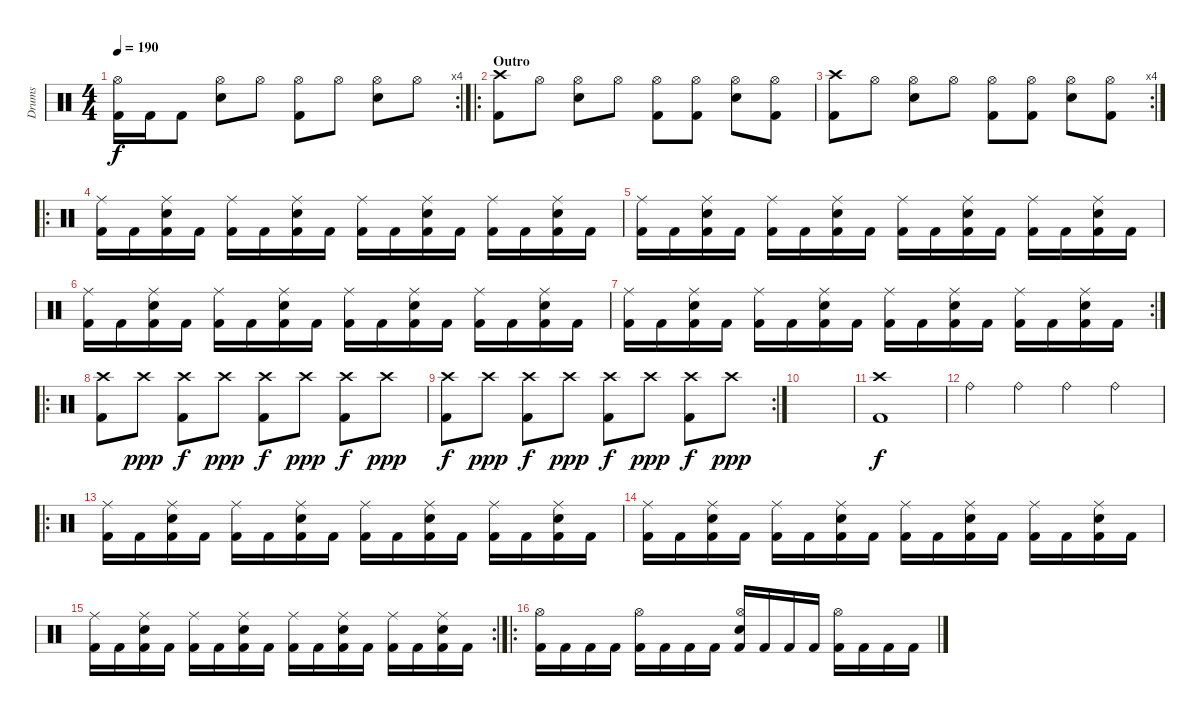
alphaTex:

\track ("Drums" "Drums") {instrument percussion}
\staff {score}
\articulation defaults
\rc 4
\ts (4 4)
\tempo 190
\clef neutral
\ks c
("Kick (hit) 2" "Hi-Hat (open)").16{dy f} "Kick (hit) 2".16 "Kick (hit) 2".8 ("Hi-Hat (open)" "Electric Snare (hit)").8 "Hi-Hat (open)".8 ("Hi-Hat (open)" "Kick (hit) 2").8 "Hi-Hat (open)".8 ("Hi-Hat (open)" "Electric Snare (hit)").8 "Hi-Hat (open)".8 |
\ro
\section ("" "Outro")
("Crash high (hit)" "Kick (hit) 2").8 "Hi-Hat (open)".8 ("Hi-Hat (open)" "Electric Snare (hit)").8 "Hi-Hat (open)".8 ("Hi-Hat (open)" "Kick (hit) 2").8 ("Hi-Hat (open)" "Kick (hit) 2").8 ("Hi-Hat (open)" "Electric Snare (hit)").8 ("Hi-Hat (open)" "Kick (hit) 2").8 |
\rc 4
("Crash high (hit)" "Kick (hit) 2").8 "Hi-Hat (open)".8 ("Hi-Hat (open)" "Electric Snare (hit)").8 "Hi-Hat (open)".8 ("Hi-Hat (open)" "Kick (hit) 2").8 ("Hi-Hat (open)" "Kick (hit) 2").8 ("Hi-Hat (open)" "Electric Snare (hit)").8 ("Hi-Hat (open)" "Kick (hit) 2").8 |
\ro
("Kick (hit) 2" "Ride (middle)").16 "Kick (hit) 2".16 ("Kick (hit) 2" "Ride (middle)" "Electric Snare (hit)").16 "Kick (hit) 2".16 ("Kick (hit) 2" "Ride (middle)").16 "Kick (hit) 2".16 ("Kick (hit) 2" "Ride (middle)" "Electric Snare (hit)").16 "Kick (hit) 2".16 ("Kick (hit) 2" "Ride (middle)").16 "Kick (hit) 2".16 ("Kick (hit) 2" "Ride (middle)" "Electric Snare (hit)").16 "Kick (hit) 2".16 ("Kick (hit) 2" "Ride (middle)").16 "Kick (hit) 2".16 ("Kick (hit) 2" "Ride (middle)" "Electric Snare (hit)").16 "Kick (hit) 2".16 |
("Kick (hit) 2" "Ride (middle)").16 "Kick (hit) 2".16 ("Kick (hit) 2" "Ride (middle)" "Electric Snare (hit)").16 "Kick (hit) 2".16 ("Kick (hit) 2" "Ride (middle)").16 "Kick (hit) 2".16 ("Kick (hit) 2" "Ride (middle)" "Electric Snare (hit)").16 "Kick (hit) 2".16 ("Kick (hit) 2" "Ride (middle)").16 "Kick (hit) 2".16 ("Kick (hit) 2" "Ride (middle)" "Electric Snare (hit)").16 "Kick (hit) 2".16 ("Kick (hit) 2" "Ride (middle)").16 "Kick (hit) 2".16 ("Kick (hit) 2" "Ride (middle)" "Electric Snare (hit)").16 "Kick (hit) 2".16 |
("Kick (hit) 2" "Ride (middle)").16 "Kick (hit) 2".16 ("Kick (hit) 2" "Ride (middle)" "Electric Snare (hit)").16 "Kick (hit) 2".16 ("Kick (hit) 2" "Ride (middle)").16 "Kick (hit) 2".16 ("Kick (hit) 2" "Ride (middle)" "Electric Snare (hit)").16 "Kick (hit) 2".16 ("Kick (hit) 2" "Ride (middle)").16 "Kick (hit) 2".16 ("Kick (hit) 2" "Ride (middle)" "Electric Snare (hit)").16 "Kick (hit) 2".16 ("Kick (hit) 2" "Ride (middle)").16 "Kick (hit) 2".16 ("Kick (hit) 2" "Ride (middle)" "Electric Snare (hit)").16 "Kick (hit) 2".16 |
\rc 2
("Kick (hit) 2" "Ride (middle)").16 "Kick (hit) 2".16 ("Kick (hit) 2" "Ride (middle)" "Electric Snare (hit)").16 "Kick (hit) 2".16 ("Kick (hit) 2" "Ride (middle)").16 "Kick (hit) 2".16 ("Kick (hit) 2" "Ride (middle)" "Electric Snare (hit)").16 "Kick (hit) 2".16 ("Kick (hit) 2" "Ride (middle)").16 "Kick (hit) 2".16 ("Kick (hit) 2" "Ride (middle)" "Electric Snare (hit)").16 "Kick (hit) 2".16 ("Kick (hit) 2" "Ride (middle)").16 "Kick (hit) 2".16 ("Kick (hit) 2" "Ride (middle)" "Electric Snare (hit)").16 "Kick (hit) 2".16 |
\ro
("Crash high (hit)" "Kick (hit) 2").8 "Crash high (hit)".8{dy ppp} ("Crash high (hit)" "Kick (hit) 2").8{dy f} "Crash high (hit)".8{dy ppp} ("Crash high (hit)" "Kick (hit) 2").8{dy f} "Crash high (hit)".8{dy ppp} ("Crash high (hit)" "Kick (hit) 2").8{dy f} "Crash high (hit)".8{dy ppp} |
\rc 2
("Crash high (hit)" "Kick (hit) 2").8{dy f} "Crash high (hit)".8{dy ppp} ("Crash high (hit)" "Kick (hit) 2").8{dy f} "Crash high (hit)".8{dy ppp} ("Crash high (hit)" "Kick (hit) 2").8{dy f} "Crash high (hit)".8{dy ppp} ("Crash high (hit)" "Kick (hit) 2").8{dy f} "Crash high (hit)".8{dy ppp} |
|
("Crash high (hit)" "Kick (hit) 2").1{dy f} |
"Ride (bell)".4 "Ride (bell)".4 "Ride (bell)".4 "Ride (bell)".4 |
\ro
("Kick (hit) 2" "Ride (middle)").16 "Kick (hit) 2".16 ("Kick (hit) 2" "Ride (middle)" "Electric Snare (hit)").16 "Kick (hit) 2".16 ("Kick (hit) 2" "Ride (middle)").16 "Kick (hit) 2".16 ("Kick (hit) 2" "Ride (middle)" "Electric Snare (hit)").16 "Kick (hit) 2".16 ("Kick (hit) 2" "Ride (middle)").16 "Kick (hit) 2".16 ("Kick (hit) 2" "Ride (middle)" "Electric Snare (hit)").16 "Kick (hit) 2".16 ("Kick (hit) 2" "Ride (middle)").16 "Kick (hit) 2".16 ("Kick (hit) 2" "Ride (middle)" "Electric Snare (hit)").16 "Kick (hit) 2".16 |
("Kick (hit) 2" "Ride (middle)").16 "Kick (hit) 2".16 ("Kick (hit) 2" "Ride (middle)" "Electric Snare (hit)").16 "Kick (hit) 2".16 ("Kick (hit) 2" "Ride (middle)").16 "Kick (hit) 2".16 ("Kick (hit) 2" "Ride (middle)" "Electric Snare (hit)").16 "Kick (hit) 2".16 ("Kick (hit) 2" "Ride (middle)").16 "Kick (hit) 2".16 ("Kick (hit) 2" "Ride (middle)" "Electric Snare (hit)").16 "Kick (hit) 2".16 ("Kick (hit) 2" "Ride (middle)").16 "Kick (hit) 2".16 ("Kick (hit) 2" "Ride (middle)" "Electric Snare (hit)").16 "Kick (hit) 2".16 |
\rc 2
("Kick (hit) 2" "Ride (middle)").16 "Kick (hit) 2".16 ("Kick (hit) 2" "Ride (middle)" "Electric Snare (hit)").16 "Kick (hit) 2".16 ("Kick (hit) 2" "Ride (middle)").16 "Kick (hit) 2".16 ("Kick (hit) 2" "Ride (middle)" "Electric Snare (hit)").16 "Kick (hit) 2".16 ("Kick (hit) 2" "Ride (middle)").16 "Kick (hit) 2".16 ("Kick (hit) 2" "Ride (middle)" "Electric Snare (hit)").16 "Kick (hit) 2".16 ("Kick (hit) 2" "Ride (middle)").16 "Kick (hit) 2".16 ("Kick (hit) 2" "Ride (middle)" "Electric Snare (hit)").16 "Kick (hit) 2".16 |
\ro
("Kick (hit) 2" "Hi-Hat (open)").16 "Kick (hit) 2".16 "Kick (hit) 2".16 "Kick (hit) 2".16 ("Kick (hit) 2" "Hi-Hat (open)").16 "Kick (hit) 2".16 "Kick (hit) 2".16 "Kick (hit) 2".16 ("Kick (hit) 2" "Hi-Hat (open)" "Electric Snare (hit)").16 "Kick (hit) 2".16 "Kick (hit) 2".16 "Kick (hit) 2".16 ("Kick (hit) 2" "Hi-Hat (open)").16 "Kick (hit) 2".16 "Kick (hit) 2".16 "Kick (hit) 2".16
